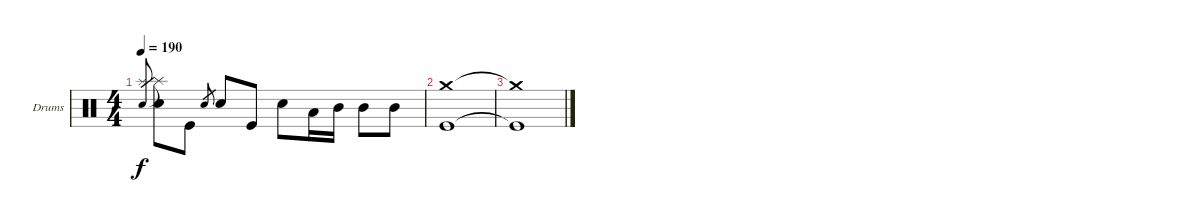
\bracketExtendMode groupsimilarinstruments
\firstSystemTrackNameOrientation horizontal
\otherSystemsTrackNameOrientation horizontal
\track ("Drums" "Drums") {instrument percussion}
\staff {score}
\articulation defaults
\ts (4 4)
\tempo 190
\clef neutral
\ks c
("Snare (hit) 2" "Splash (hit)"{t}).8{gr dy f} ("Splash (hit)"{t} "Snare (hit) 2").8 "Kick (hit)".8 "Snare (hit) 2".8{gr} "Snare (hit) 2".8 "Kick (hit)".8 "Snare (hit) 2".8 "Low Tom (hit)".16 "Mid Tom (hit)".16 "Mid Tom (hit)".8 "Mid Tom (hit)".8 |
("Kick (hit)" "Crash medium (hit)").1 |
("Kick (hit)"{t} "Crash medium (hit)"{t}).1
